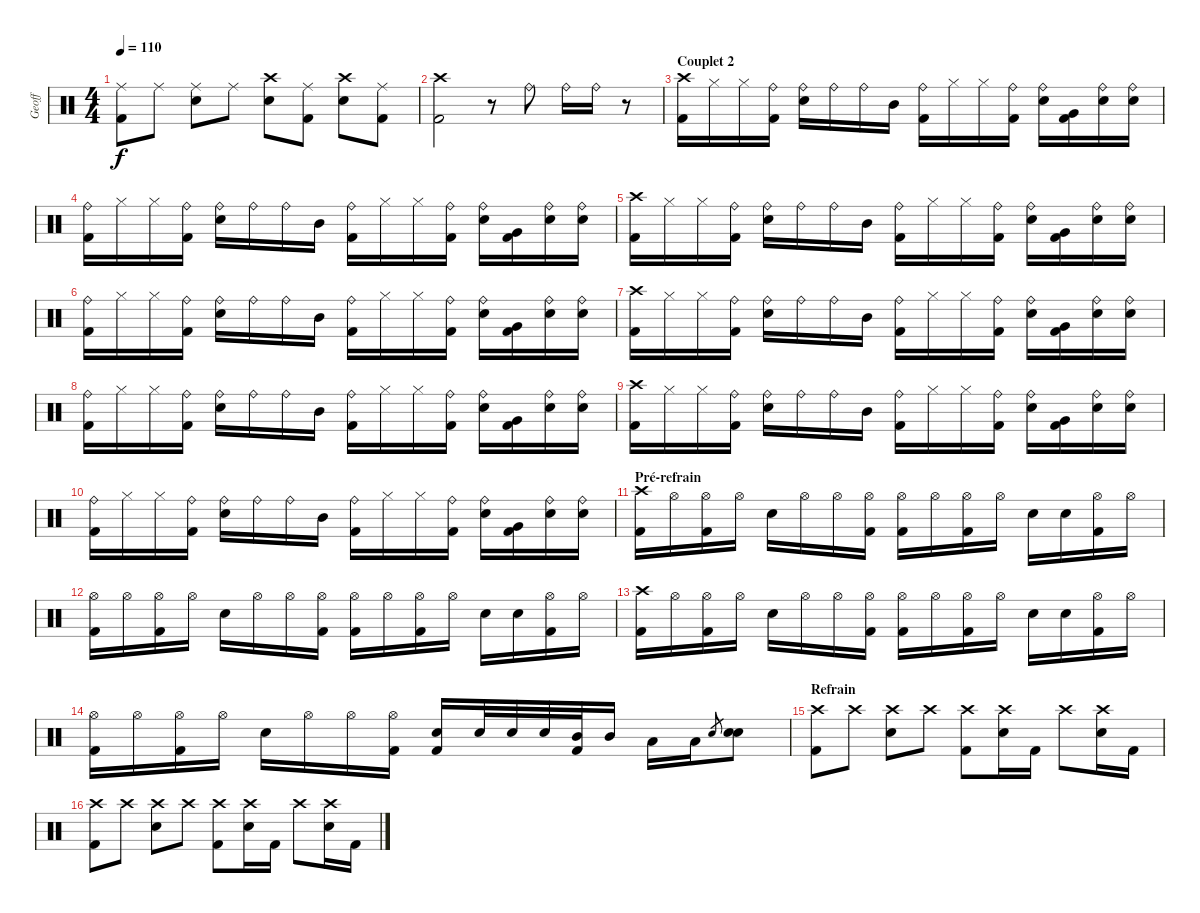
\track ("Geoff" "Geoff") {instrument percussion}
\staff {score}
\articulation defaults
\ts (4 4)
\tempo 110
\clef neutral
\ks c
("Ride (middle)" "Kick (hit) 2").8{dy f} "Ride (middle)".8 ("Ride (middle)" "Electric Snare (hit)").8 "Ride (middle)".8 ("Crash high (hit)" "Electric Snare (hit)").8 ("Ride (middle)" "Kick (hit) 2").8 ("Crash high (hit)" "Electric Snare (hit)").8 ("Ride (middle)" "Kick (hit) 2").8 |
("Crash high (hit)" "Kick (hit) 2").2 r.8 "Ride (bell)".8 "Ride (bell)".16 "Ride (bell)".16 r.8 |
\section ("" "Couplet 2")
("Crash high (hit)" "Kick (hit) 2").16 "Hi-Hat (closed)".16 "Hi-Hat (closed)".16 ("Ride (bell)" "Kick (hit) 2").16 ("Ride (bell)" "Electric Snare (hit)").16 "Ride (bell)".16 "Ride (bell)".16 "Mid Tom (hit)".16 ("Ride (bell)" "Kick (hit) 2").16 "Hi-Hat (closed)".16 "Hi-Hat (closed)".16 ("Ride (bell)" "Kick (hit) 2").16 ("Ride (bell)" "Electric Snare (hit)").16 ("Very Low Tom (hit)" "Kick (hit) 2").16 ("Ride (bell)" "Electric Snare (hit)").16 ("Ride (bell)" "Electric Snare (hit)").16 |
("Ride (bell)" "Kick (hit) 2").16 "Hi-Hat (closed)".16 "Hi-Hat (closed)".16 ("Ride (bell)" "Kick (hit) 2").16 ("Ride (bell)" "Electric Snare (hit)").16 "Ride (bell)".16 "Ride (bell)".16 "Mid Tom (hit)".16 ("Ride (bell)" "Kick (hit) 2").16 "Hi-Hat (closed)".16 "Hi-Hat (closed)".16 ("Ride (bell)" "Kick (hit) 2").16 ("Ride (bell)" "Electric Snare (hit)").16 ("Very Low Tom (hit)" "Kick (hit) 2").16 ("Ride (bell)" "Electric Snare (hit)").16 ("Ride (bell)" "Electric Snare (hit)").16 |
("Crash high (hit)" "Kick (hit) 2").16 "Hi-Hat (closed)".16 "Hi-Hat (closed)".16 ("Ride (bell)" "Kick (hit) 2").16 ("Ride (bell)" "Electric Snare (hit)").16 "Ride (bell)".16 "Ride (bell)".16 "Mid Tom (hit)".16 ("Ride (bell)" "Kick (hit) 2").16 "Hi-Hat (closed)".16 "Hi-Hat (closed)".16 ("Ride (bell)" "Kick (hit) 2").16 ("Ride (bell)" "Electric Snare (hit)").16 ("Very Low Tom (hit)" "Kick (hit) 2").16 ("Ride (bell)" "Electric Snare (hit)").16 ("Ride (bell)" "Electric Snare (hit)").16 |
("Ride (bell)" "Kick (hit) 2").16 "Hi-Hat (closed)".16 "Hi-Hat (closed)".16 ("Ride (bell)" "Kick (hit) 2").16 ("Ride (bell)" "Electric Snare (hit)").16 "Ride (bell)".16 "Ride (bell)".16 "Mid Tom (hit)".16 ("Ride (bell)" "Kick (hit) 2").16 "Hi-Hat (closed)".16 "Hi-Hat (closed)".16 ("Ride (bell)" "Kick (hit) 2").16 ("Ride (bell)" "Electric Snare (hit)").16 ("Very Low Tom (hit)" "Kick (hit) 2").16 ("Ride (bell)" "Electric Snare (hit)").16 ("Ride (bell)" "Electric Snare (hit)").16 |
("Crash high (hit)" "Kick (hit) 2").16 "Hi-Hat (closed)".16 "Hi-Hat (closed)".16 ("Ride (bell)" "Kick (hit) 2").16 ("Ride (bell)" "Electric Snare (hit)").16 "Ride (bell)".16 "Ride (bell)".16 "Mid Tom (hit)".16 ("Ride (bell)" "Kick (hit) 2").16 "Hi-Hat (closed)".16 "Hi-Hat (closed)".16 ("Ride (bell)" "Kick (hit) 2").16 ("Ride (bell)" "Electric Snare (hit)").16 ("Very Low Tom (hit)" "Kick (hit) 2").16 ("Ride (bell)" "Electric Snare (hit)").16 ("Ride (bell)" "Electric Snare (hit)").16 |
("Ride (bell)" "Kick (hit) 2").16 "Hi-Hat (closed)".16 "Hi-Hat (closed)".16 ("Ride (bell)" "Kick (hit) 2").16 ("Ride (bell)" "Electric Snare (hit)").16 "Ride (bell)".16 "Ride (bell)".16 "Mid Tom (hit)".16 ("Ride (bell)" "Kick (hit) 2").16 "Hi-Hat (closed)".16 "Hi-Hat (closed)".16 ("Ride (bell)" "Kick (hit) 2").16 ("Ride (bell)" "Electric Snare (hit)").16 ("Very Low Tom (hit)" "Kick (hit) 2").16 ("Ride (bell)" "Electric Snare (hit)").16 ("Ride (bell)" "Electric Snare (hit)").16 |
("Crash high (hit)" "Kick (hit) 2").16 "Hi-Hat (closed)".16 "Hi-Hat (closed)".16 ("Ride (bell)" "Kick (hit) 2").16 ("Ride (bell)" "Electric Snare (hit)").16 "Ride (bell)".16 "Ride (bell)".16 "Mid Tom (hit)".16 ("Ride (bell)" "Kick (hit) 2").16 "Hi-Hat (closed)".16 "Hi-Hat (closed)".16 ("Ride (bell)" "Kick (hit) 2").16 ("Ride (bell)" "Electric Snare (hit)").16 ("Very Low Tom (hit)" "Kick (hit) 2").16 ("Ride (bell)" "Electric Snare (hit)").16 ("Ride (bell)" "Electric Snare (hit)").16 |
("Ride (bell)" "Kick (hit) 2").16 "Hi-Hat (closed)".16 "Hi-Hat (closed)".16 ("Ride (bell)" "Kick (hit) 2").16 ("Ride (bell)" "Electric Snare (hit)").16 "Ride (bell)".16 "Ride (bell)".16 "Mid Tom (hit)".16 ("Ride (bell)" "Kick (hit) 2").16 "Hi-Hat (closed)".16 "Hi-Hat (closed)".16 ("Ride (bell)" "Kick (hit) 2").16 ("Ride (bell)" "Electric Snare (hit)").16 ("Very Low Tom (hit)" "Kick (hit) 2").16 ("Ride (bell)" "Electric Snare (hit)").16 ("Ride (bell)" "Electric Snare (hit)").16 |
\section ("" "Pré-refrain")
("Crash high (hit)" "Kick (hit) 2").16 "Hi-Hat (open)".16 ("Hi-Hat (open)" "Kick (hit) 2").16 "Hi-Hat (open)".16 "Electric Snare (hit)".16 "Hi-Hat (open)".16 "Hi-Hat (open)".16 ("Hi-Hat (open)" "Kick (hit) 2").16 ("Hi-Hat (open)" "Kick (hit) 2").16 "Hi-Hat (open)".16 ("Hi-Hat (open)" "Kick (hit) 2").16 "Hi-Hat (open)".16 "Electric Snare (hit)".16 "Electric Snare (hit)".16 ("Hi-Hat (open)" "Kick (hit) 2").16 "Hi-Hat (open)".16 |
("Hi-Hat (open)" "Kick (hit) 2").16 "Hi-Hat (open)".16 ("Hi-Hat (open)" "Kick (hit) 2").16 "Hi-Hat (open)".16 "Electric Snare (hit)".16 "Hi-Hat (open)".16 "Hi-Hat (open)".16 ("Hi-Hat (open)" "Kick (hit) 2").16 ("Hi-Hat (open)" "Kick (hit) 2").16 "Hi-Hat (open)".16 ("Hi-Hat (open)" "Kick (hit) 2").16 "Hi-Hat (open)".16 "Electric Snare (hit)".16 "Electric Snare (hit)".16 ("Hi-Hat (open)" "Kick (hit) 2").16 "Hi-Hat (open)".16 |
("Crash high (hit)" "Kick (hit) 2").16 "Hi-Hat (open)".16 ("Hi-Hat (open)" "Kick (hit) 2").16 "Hi-Hat (open)".16 "Electric Snare (hit)".16 "Hi-Hat (open)".16 "Hi-Hat (open)".16 ("Hi-Hat (open)" "Kick (hit) 2").16 ("Hi-Hat (open)" "Kick (hit) 2").16 "Hi-Hat (open)".16 ("Hi-Hat (open)" "Kick (hit) 2").16 "Hi-Hat (open)".16 "Electric Snare (hit)".16 "Electric Snare (hit)".16 ("Hi-Hat (open)" "Kick (hit) 2").16 "Hi-Hat (open)".16 |
("Hi-Hat (open)" "Kick (hit) 2").16 "Hi-Hat (open)".16 ("Hi-Hat (open)" "Kick (hit) 2").16 "Hi-Hat (open)".16 "Electric Snare (hit)".16 "Hi-Hat (open)".16 "Hi-Hat (open)".16 ("Hi-Hat (open)" "Kick (hit) 2").16 ("Electric Snare (hit)" "Kick (hit) 2").16 "Electric Snare (hit)".32 "Electric Snare (hit)".32 "Electric Snare (hit)".32 ("Mid Tom (hit)" "Kick (hit) 2").32 "Mid Tom (hit)".16 "Low Tom (hit)".16 "Low Tom (hit)".16 "Electric Snare (hit)".8{gr} ("Electric Snare (hit)" "Electric Snare (hit)").8 |
\section ("" "Refrain")
("Crash high (hit)" "Kick (hit) 2").8 "Crash high (hit)".8 ("Crash high (hit)" "Electric Snare (hit)").8 "Crash high (hit)".8 ("Crash high (hit)" "Kick (hit) 2").8 ("Crash high (hit)" "Electric Snare (hit)").16 "Kick (hit) 2".16 "Crash high (hit)".8 ("Crash high (hit)" "Electric Snare (hit)").16 "Kick (hit) 2".16 |
("Crash high (hit)" "Kick (hit) 2").8 "Crash high (hit)".8 ("Crash high (hit)" "Electric Snare (hit)").8 "Crash high (hit)".8 ("Crash high (hit)" "Kick (hit) 2").8 ("Crash high (hit)" "Electric Snare (hit)").16 "Kick (hit) 2".16 "Crash high (hit)".8 ("Crash high (hit)" "Electric Snare (hit)").16 "Kick (hit) 2".16
